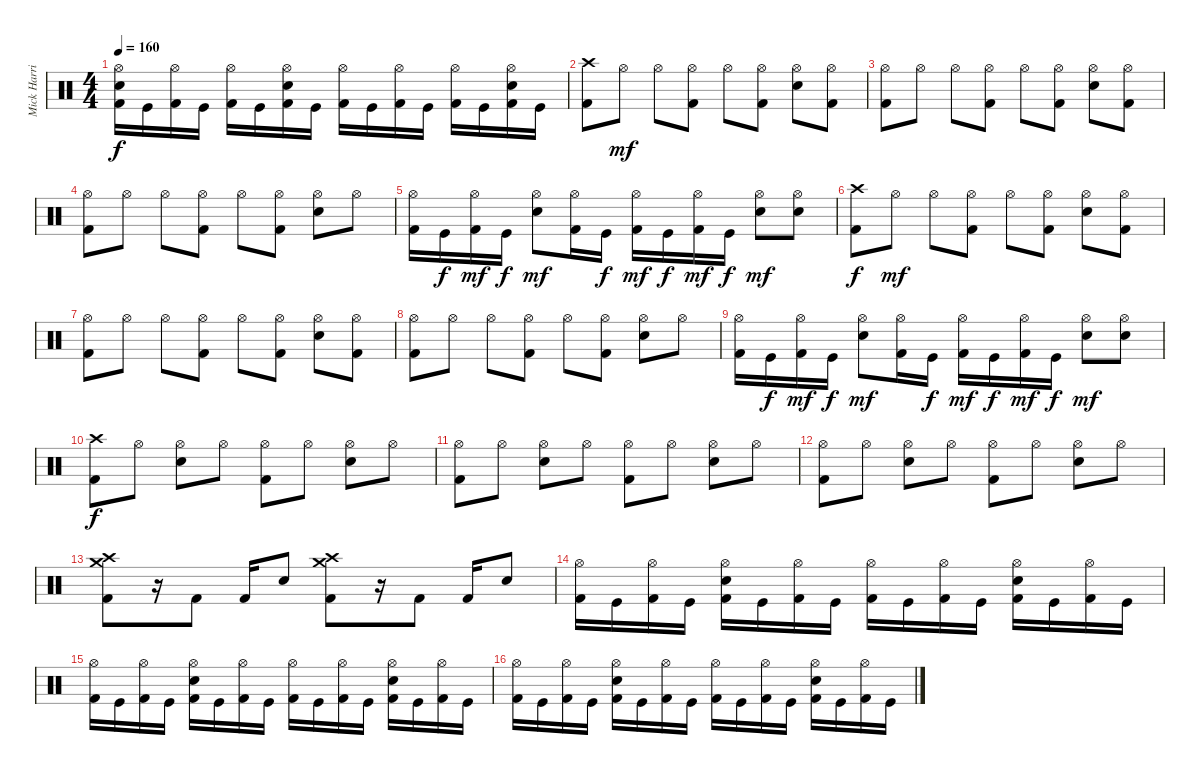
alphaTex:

\track ("Mick Harris (Drums)" "Mick Harri") {instrument percussion}
\staff {score}
\articulation defaults
\ts (4 4)
\tempo 160
\clef neutral
\ks c
("Kick (hit) 2" "Electric Snare (hit)" "Hi-Hat (open)").16{dy f} "Kick (hit)".16 ("Kick (hit) 2" "Hi-Hat (open)").16 "Kick (hit)".16 ("Kick (hit) 2" "Hi-Hat (open)").16 "Kick (hit)".16 ("Kick (hit) 2" "Electric Snare (hit)" "Hi-Hat (open)").16 "Kick (hit)".16 ("Kick (hit) 2" "Hi-Hat (open)").16 "Kick (hit)".16 ("Kick (hit) 2" "Hi-Hat (open)").16 "Kick (hit)".16 ("Kick (hit) 2" "Hi-Hat (open)").16 "Kick (hit)".16 ("Kick (hit) 2" "Electric Snare (hit)" "Hi-Hat (open)").16 "Kick (hit)".16 |
("Kick (hit) 2" "Crash high (hit)").8 "Hi-Hat (open)".8{dy mf} "Hi-Hat (open)".8 ("Kick (hit) 2" "Hi-Hat (open)").8 "Hi-Hat (open)".8 ("Kick (hit) 2" "Hi-Hat (open)").8 ("Electric Snare (hit)" "Hi-Hat (open)").8 ("Kick (hit) 2" "Hi-Hat (open)").8 |
("Kick (hit) 2" "Hi-Hat (open)").8 "Hi-Hat (open)".8 "Hi-Hat (open)".8 ("Kick (hit) 2" "Hi-Hat (open)").8 "Hi-Hat (open)".8 ("Kick (hit) 2" "Hi-Hat (open)").8 ("Electric Snare (hit)" "Hi-Hat (open)").8 ("Kick (hit) 2" "Hi-Hat (open)").8 |
("Kick (hit) 2" "Hi-Hat (open)").8 "Hi-Hat (open)".8 "Hi-Hat (open)".8 ("Kick (hit) 2" "Hi-Hat (open)").8 "Hi-Hat (open)".8 ("Kick (hit) 2" "Hi-Hat (open)").8 ("Electric Snare (hit)" "Hi-Hat (open)").8 "Hi-Hat (open)".8 |
("Kick (hit) 2" "Hi-Hat (open)").16 "Kick (hit)".16{dy f} ("Kick (hit) 2" "Hi-Hat (open)").16{dy mf} "Kick (hit)".16{dy f} ("Electric Snare (hit)" "Hi-Hat (open)").8{dy mf} ("Kick (hit) 2" "Hi-Hat (open)").16 "Kick (hit)".16{dy f} ("Kick (hit) 2" "Hi-Hat (open)").16{dy mf} "Kick (hit)".16{dy f} ("Kick (hit) 2" "Hi-Hat (open)").16{dy mf} "Kick (hit)".16{dy f} ("Electric Snare (hit)" "Hi-Hat (open)").8{dy mf} ("Electric Snare (hit)" "Hi-Hat (open)").8 |
("Kick (hit) 2" "Crash high (hit)").8{dy f} "Hi-Hat (open)".8{dy mf} "Hi-Hat (open)".8 ("Kick (hit) 2" "Hi-Hat (open)").8 "Hi-Hat (open)".8 ("Kick (hit) 2" "Hi-Hat (open)").8 ("Electric Snare (hit)" "Hi-Hat (open)").8 ("Kick (hit) 2" "Hi-Hat (open)").8 |
("Kick (hit) 2" "Hi-Hat (open)").8 "Hi-Hat (open)".8 "Hi-Hat (open)".8 ("Kick (hit) 2" "Hi-Hat (open)").8 "Hi-Hat (open)".8 ("Kick (hit) 2" "Hi-Hat (open)").8 ("Electric Snare (hit)" "Hi-Hat (open)").8 ("Kick (hit) 2" "Hi-Hat (open)").8 |
("Kick (hit) 2" "Hi-Hat (open)").8 "Hi-Hat (open)".8 "Hi-Hat (open)".8 ("Kick (hit) 2" "Hi-Hat (open)").8 "Hi-Hat (open)".8 ("Kick (hit) 2" "Hi-Hat (open)").8 ("Electric Snare (hit)" "Hi-Hat (open)").8 "Hi-Hat (open)".8 |
("Kick (hit) 2" "Hi-Hat (open)").16 "Kick (hit)".16{dy f} ("Kick (hit) 2" "Hi-Hat (open)").16{dy mf} "Kick (hit)".16{dy f} ("Electric Snare (hit)" "Hi-Hat (open)").8{dy mf} ("Kick (hit) 2" "Hi-Hat (open)").16 "Kick (hit)".16{dy f} ("Kick (hit) 2" "Hi-Hat (open)").16{dy mf} "Kick (hit)".16{dy f} ("Kick (hit) 2" "Hi-Hat (open)").16{dy mf} "Kick (hit)".16{dy f} ("Electric Snare (hit)" "Hi-Hat (open)").8{dy mf} ("Electric Snare (hit)" "Hi-Hat (open)").8 |
("Kick (hit) 2" "Crash high (hit)").8{dy f} "Hi-Hat (open)".8 ("Electric Snare (hit)" "Hi-Hat (open)").8 "Hi-Hat (open)".8 ("Kick (hit) 2" "Hi-Hat (open)").8 "Hi-Hat (open)".8 ("Electric Snare (hit)" "Hi-Hat (open)").8 "Hi-Hat (open)".8 |
("Kick (hit) 2" "Hi-Hat (open)").8 "Hi-Hat (open)".8 ("Electric Snare (hit)" "Hi-Hat (open)").8 "Hi-Hat (open)".8 ("Kick (hit) 2" "Hi-Hat (open)").8 "Hi-Hat (open)".8 ("Electric Snare (hit)" "Hi-Hat (open)").8 "Hi-Hat (open)".8 |
("Kick (hit) 2" "Hi-Hat (open)").8 "Hi-Hat (open)".8 ("Electric Snare (hit)" "Hi-Hat (open)").8 "Hi-Hat (open)".8 ("Kick (hit) 2" "Hi-Hat (open)").8 "Hi-Hat (open)".8 ("Electric Snare (hit)" "Hi-Hat (open)").8 "Hi-Hat (open)".8 |
("Kick (hit) 2" "Crash medium (hit)" "Crash high (hit)").8 r.16 "Kick (hit) 2".8 "Kick (hit) 2".16 "Electric Snare (hit)".8 ("Kick (hit) 2" "Crash high (hit)" "Crash medium (hit)").8 r.16 "Kick (hit) 2".8 "Kick (hit) 2".16 "Electric Snare (hit)".8 |
("Kick (hit) 2" "Hi-Hat (open)").16 "Kick (hit)".16 ("Kick (hit) 2" "Hi-Hat (open)").16 "Kick (hit)".16 ("Kick (hit) 2" "Electric Snare (hit)" "Hi-Hat (open)").16 "Kick (hit)".16 ("Kick (hit) 2" "Hi-Hat (open)").16 "Kick (hit)".16 ("Kick (hit) 2" "Hi-Hat (open)").16 "Kick (hit)".16 ("Kick (hit) 2" "Hi-Hat (open)").16 "Kick (hit)".16 ("Kick (hit) 2" "Electric Snare (hit)" "Hi-Hat (open)").16 "Kick (hit)".16 ("Kick (hit) 2" "Hi-Hat (open)").16 "Kick (hit)".16 |
("Kick (hit) 2" "Hi-Hat (open)").16 "Kick (hit)".16 ("Kick (hit) 2" "Hi-Hat (open)").16 "Kick (hit)".16 ("Kick (hit) 2" "Electric Snare (hit)" "Hi-Hat (open)").16 "Kick (hit)".16 ("Kick (hit) 2" "Hi-Hat (open)").16 "Kick (hit)".16 ("Kick (hit) 2" "Hi-Hat (open)").16 "Kick (hit)".16 ("Kick (hit) 2" "Hi-Hat (open)").16 "Kick (hit)".16 ("Kick (hit) 2" "Electric Snare (hit)" "Hi-Hat (open)").16 "Kick (hit)".16 ("Kick (hit) 2" "Hi-Hat (open)").16 "Kick (hit)".16 |
("Kick (hit) 2" "Hi-Hat (open)").16 "Kick (hit)".16 ("Kick (hit) 2" "Hi-Hat (open)").16 "Kick (hit)".16 ("Kick (hit) 2" "Electric Snare (hit)" "Hi-Hat (open)").16 "Kick (hit)".16 ("Kick (hit) 2" "Hi-Hat (open)").16 "Kick (hit)".16 ("Kick (hit) 2" "Hi-Hat (open)").16 "Kick (hit)".16 ("Kick (hit) 2" "Hi-Hat (open)").16 "Kick (hit)".16 ("Kick (hit) 2" "Electric Snare (hit)" "Hi-Hat (open)").16 "Kick (hit)".16 ("Kick (hit) 2" "Hi-Hat (open)").16 "Kick (hit)".16
